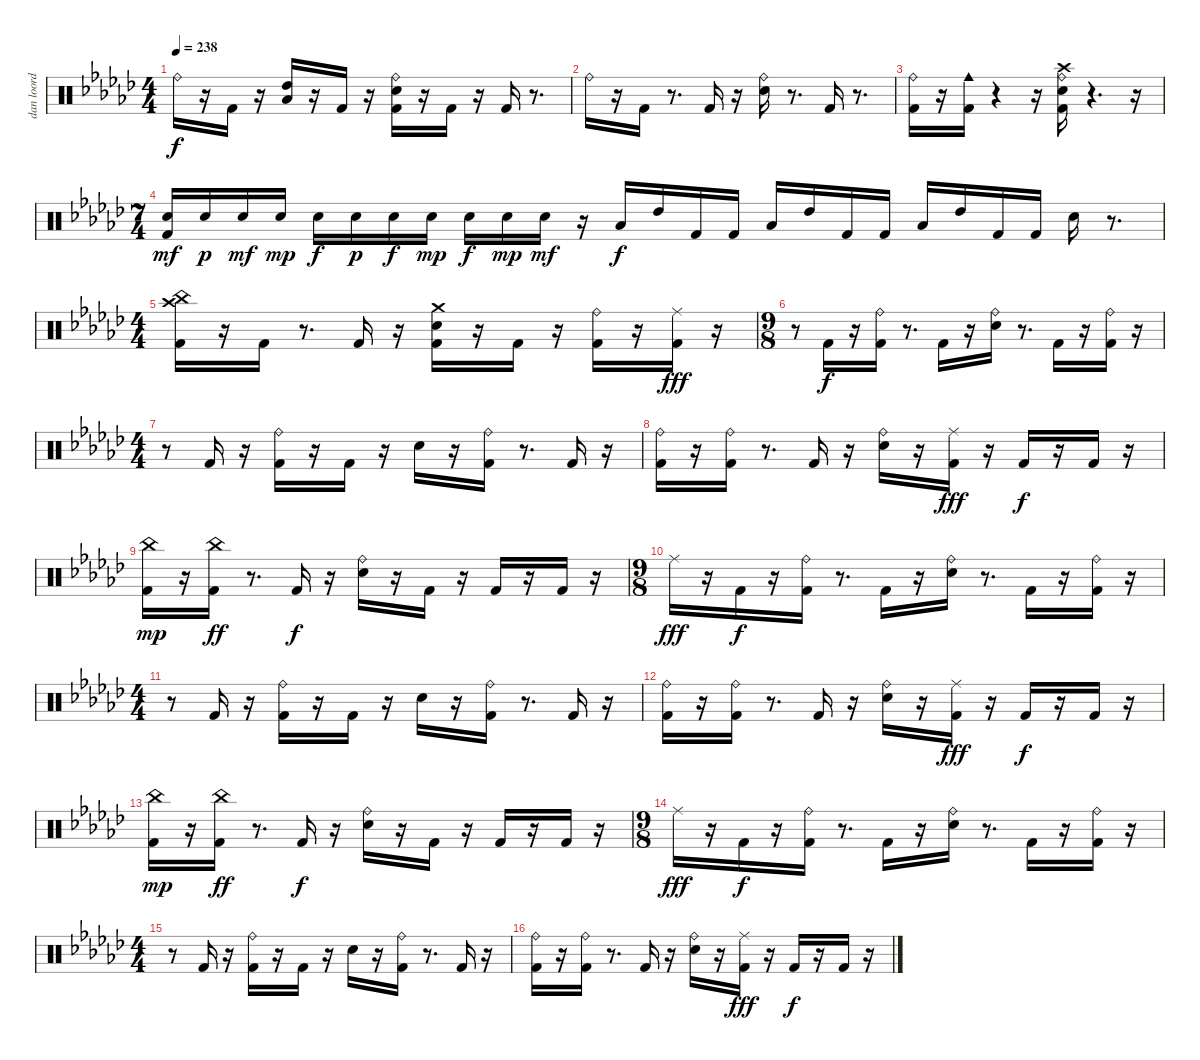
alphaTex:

\track ("dan loord foord" "dan loord ") {instrument percussion}
\staff {score}
\articulation defaults
\ts (4 4)
\tempo 238
\clef neutral
\ks gb "Ride (bell)".16{dy f}
r.16 "Kick (hit) 2".16 r.16 ("Low Floor Tom (hit)" "High Tom (hit)").16 r.16 "Kick (hit) 2".16 r.16 ("Kick (hit) 2" "Snare (hit) 2" "Ride (bell)").16 r.16 "Kick (hit) 2".16 r.16 "Kick (hit) 2".16 r.8{d} |
"Ride (bell)".16 r.16 "Kick (hit) 2".16 r.8{d} "Kick (hit) 2".16 r.16 ("Snare (hit) 2" "Ride (bell)").16 r.8{d} "Kick (hit) 2".16 r.8{d} |
("Kick (hit) 2" "Ride (bell)").16 r.16 ("Kick (hit) 2" "Cowbell medium (hit)").16 r.4 r.16 ("Kick (hit) 2" "Snare (hit) 2" "Crash high (hit)" "Ride (bell)").16 r.4{d} r.16 |
\ts (7 4)
("Kick (hit) 2" "Snare (hit) 2").16{dy mf} "Snare (hit) 2".16{dy p} "Snare (hit) 2".16{dy mf} "Snare (hit) 2".16{dy mp} "Snare (hit) 2".16{dy f} "Snare (hit) 2".16{dy p} "Snare (hit) 2".16{dy f} "Snare (hit) 2".16{dy mp} "Snare (hit) 2".16{dy f} "Snare (hit) 2".16{dy mp} "Snare (hit) 2".16{dy mf} r.16 "Low Floor Tom (hit)".16{dy f} "High Tom (hit)".16 "Kick (hit) 2".16 "Kick (hit) 2".16 "Low Floor Tom (hit)".16 "High Tom (hit)".16 "Kick (hit) 2".16 "Kick (hit) 2".16 "Low Floor Tom (hit)".16 "High Tom (hit)".16 "Kick (hit) 2".16 "Kick (hit) 2".16 "Snare (hit) 2".16 r.8{d} |
\ts (4 4)
("Kick (hit) 2" "Crash high (hit)" "China (hit)").16 r.16 "Kick (hit) 2".16 r.8{d} "Kick (hit) 2".16 r.16 ("Kick (hit) 2" "Snare (hit) 2" "Crash medium (hit)").16 r.16 "Kick (hit) 2".16 r.16 ("Kick (hit) 2" "Ride (bell)").16 r.16 ("Kick (hit) 2" "Ride (middle)").16{dy fff} r.16 |
\ts (9 8)
r.8 "Kick (hit) 2".16{dy f} r.16 ("Kick (hit) 2" "Ride (bell)").16 r.8{d} "Kick (hit) 2".16 r.16 ("Snare (hit) 2" "Ride (bell)").16 r.8{d} "Kick (hit) 2".16 r.16 ("Kick (hit) 2" "Ride (bell)").16 r.16 |
\ts (4 4)
r.8 "Kick (hit) 2".16 r.16 ("Kick (hit) 2" "Ride (bell)").16 r.16 "Kick (hit) 2".16 r.16 "Snare (hit) 2".16 r.16 ("Kick (hit) 2" "Ride (bell)").16 r.8{d} "Kick (hit) 2".16 r.16 |
("Kick (hit) 2" "Ride (bell)").16 r.16 ("Kick (hit) 2" "Ride (bell)").16 r.8{d} "Kick (hit) 2".16 r.16 ("Snare (hit) 2" "Ride (bell)").16 r.16 ("Kick (hit) 2" "Ride (middle)").16{dy fff} r.16 "Kick (hit) 2".16{dy f} r.16 "Kick (hit) 2".16 r.16 |
("Kick (hit) 2" "China (hit)").16{dy mp} r.16 ("Kick (hit) 2" "China (hit)").16{dy ff} r.8{d} "Kick (hit) 2".16{dy f} r.16 ("Snare (hit) 2" "Ride (bell)").16 r.16 "Kick (hit) 2".16 r.16 "Kick (hit) 2".16 r.16 "Kick (hit) 2".16 r.16 |
\ts (9 8)
"Ride (middle)".16{dy fff} r.16 "Kick (hit) 2".16{dy f} r.16 ("Kick (hit) 2" "Ride (bell)").16 r.8{d} "Kick (hit) 2".16 r.16 ("Snare (hit) 2" "Ride (bell)").16 r.8{d} "Kick (hit) 2".16 r.16 ("Kick (hit) 2" "Ride (bell)").16 r.16 |
\ts (4 4)
r.8 "Kick (hit) 2".16 r.16 ("Kick (hit) 2" "Ride (bell)").16 r.16 "Kick (hit) 2".16 r.16 "Snare (hit) 2".16 r.16 ("Kick (hit) 2" "Ride (bell)").16 r.8{d} "Kick (hit) 2".16 r.16 |
("Kick (hit) 2" "Ride (bell)").16 r.16 ("Kick (hit) 2" "Ride (bell)").16 r.8{d} "Kick (hit) 2".16 r.16 ("Snare (hit) 2" "Ride (bell)").16 r.16 ("Kick (hit) 2" "Ride (middle)").16{dy fff} r.16 "Kick (hit) 2".16{dy f} r.16 "Kick (hit) 2".16 r.16 |
("Kick (hit) 2" "China (hit)").16{dy mp} r.16 ("Kick (hit) 2" "China (hit)").16{dy ff} r.8{d} "Kick (hit) 2".16{dy f} r.16 ("Snare (hit) 2" "Ride (bell)").16 r.16 "Kick (hit) 2".16 r.16 "Kick (hit) 2".16 r.16 "Kick (hit) 2".16 r.16 |
\ts (9 8)
"Ride (middle)".16{dy fff} r.16 "Kick (hit) 2".16{dy f} r.16 ("Kick (hit) 2" "Ride (bell)").16 r.8{d} "Kick (hit) 2".16 r.16 ("Snare (hit) 2" "Ride (bell)").16 r.8{d} "Kick (hit) 2".16 r.16 ("Kick (hit) 2" "Ride (bell)").16 r.16 |
\ts (4 4)
r.8 "Kick (hit) 2".16 r.16 ("Kick (hit) 2" "Ride (bell)").16 r.16 "Kick (hit) 2".16 r.16 "Snare (hit) 2".16 r.16 ("Kick (hit) 2" "Ride (bell)").16 r.8{d} "Kick (hit) 2".16 r.16 |
("Kick (hit) 2" "Ride (bell)").16 r.16 ("Kick (hit) 2" "Ride (bell)").16 r.8{d} "Kick (hit) 2".16 r.16 ("Snare (hit) 2" "Ride (bell)").16 r.16 ("Kick (hit) 2" "Ride (middle)").16{dy fff} r.16 "Kick (hit) 2".16{dy f} r.16 "Kick (hit) 2".16 r.16
